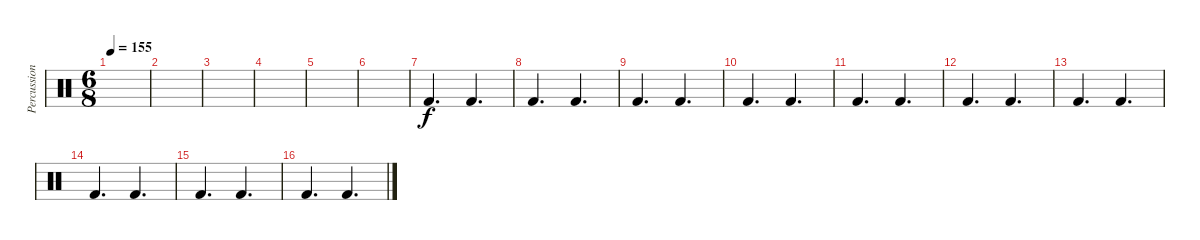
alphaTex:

\track ("Percussion" "Percussion") {instrument percussion}
\staff {score}
\articulation defaults
\ts (6 8)
\tempo 155
\clef neutral
\ks c
|
|
|
|
|
|
"Kick (hit) 2".4{d} "Kick (hit) 2".4{d} |
"Kick (hit) 2".4{d} "Kick (hit) 2".4{d} |
"Kick (hit) 2".4{d} "Kick (hit) 2".4{d} |
"Kick (hit) 2".4{d} "Kick (hit) 2".4{d} |
"Kick (hit) 2".4{d} "Kick (hit) 2".4{d} |
"Kick (hit) 2".4{d} "Kick (hit) 2".4{d} |
"Kick (hit) 2".4{d} "Kick (hit) 2".4{d} |
"Kick (hit) 2".4{d} "Kick (hit) 2".4{d} |
"Kick (hit) 2".4{d} "Kick (hit) 2".4{d} |
"Kick (hit) 2".4{d} "Kick (hit) 2".4{d}
